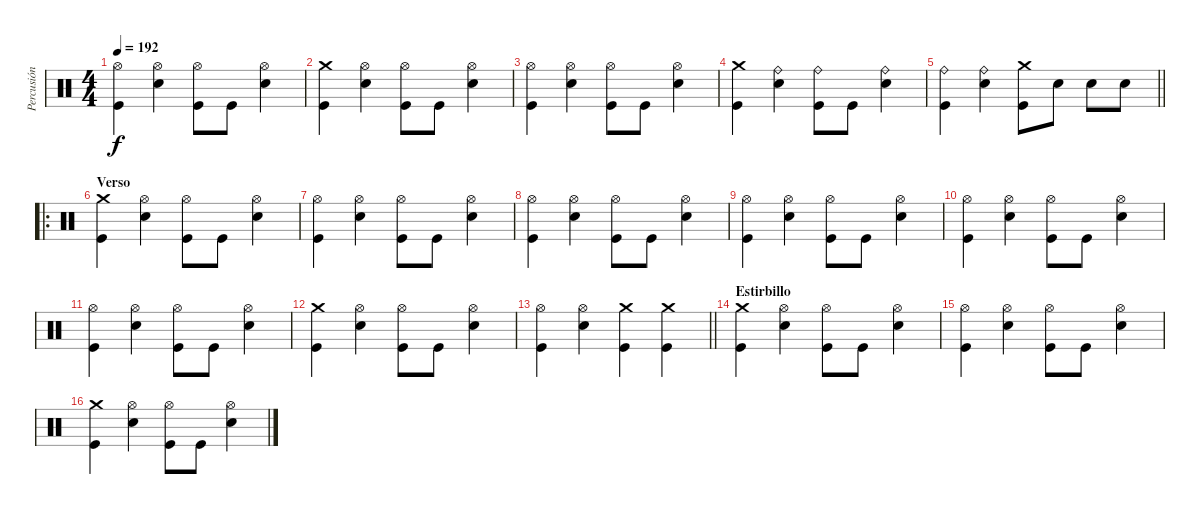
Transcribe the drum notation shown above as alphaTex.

\track ("Percusión" "Percusión") {instrument percussion}
\staff {score}
\articulation defaults
\ts (4 4)
\tempo 192
\clef neutral
\ks c
("Hi-Hat (open)" "Kick (hit)").4{dy f} ("Hi-Hat (open)" "Snare (hit) 2").4 ("Hi-Hat (open)" "Kick (hit)").8 "Kick (hit)".8 ("Hi-Hat (open)" "Snare (hit) 2").4 |
("Crash medium (hit)" "Kick (hit)").4 ("Hi-Hat (open)" "Snare (hit) 2").4 ("Hi-Hat (open)" "Kick (hit)").8 "Kick (hit)".8 ("Hi-Hat (open)" "Snare (hit) 2").4 |
("Hi-Hat (open)" "Kick (hit)").4 ("Hi-Hat (open)" "Snare (hit) 2").4 ("Hi-Hat (open)" "Kick (hit)").8 "Kick (hit)".8 ("Hi-Hat (open)" "Snare (hit) 2").4 |
("Crash medium (hit)" "Kick (hit)").4 ("Ride (bell)" "Snare (hit) 2").4 ("Ride (bell)" "Kick (hit)").8 "Kick (hit)".8 ("Ride (bell)" "Snare (hit) 2").4 |
\barLineRight lightlight
("Ride (bell)" "Kick (hit)").4 ("Ride (bell)" "Snare (hit) 2").4 ("Crash medium (hit)" "Kick (hit)").8 "Snare (hit) 2".8 "Snare (hit) 2".8 "Snare (hit) 2".8 |
\ro
\section ("" "Verso")
("Crash medium (hit)" "Kick (hit)").4 ("Hi-Hat (open)" "Snare (hit) 2").4 ("Hi-Hat (open)" "Kick (hit)").8 "Kick (hit)".8 ("Hi-Hat (open)" "Snare (hit) 2").4 |
("Hi-Hat (open)" "Kick (hit)").4 ("Hi-Hat (open)" "Snare (hit) 2").4 ("Hi-Hat (open)" "Kick (hit)").8 "Kick (hit)".8 ("Hi-Hat (open)" "Snare (hit) 2").4 |
("Hi-Hat (open)" "Kick (hit)").4 ("Hi-Hat (open)" "Snare (hit) 2").4 ("Hi-Hat (open)" "Kick (hit)").8 "Kick (hit)".8 ("Hi-Hat (open)" "Snare (hit) 2").4 |
("Hi-Hat (open)" "Kick (hit)").4 ("Hi-Hat (open)" "Snare (hit) 2").4 ("Hi-Hat (open)" "Kick (hit)").8 "Kick (hit)".8 ("Hi-Hat (open)" "Snare (hit) 2").4 |
("Hi-Hat (open)" "Kick (hit)").4 ("Hi-Hat (open)" "Snare (hit) 2").4 ("Hi-Hat (open)" "Kick (hit)").8 "Kick (hit)".8 ("Hi-Hat (open)" "Snare (hit) 2").4 |
("Hi-Hat (open)" "Kick (hit)").4 ("Hi-Hat (open)" "Snare (hit) 2").4 ("Hi-Hat (open)" "Kick (hit)").8 "Kick (hit)".8 ("Hi-Hat (open)" "Snare (hit) 2").4 |
("Crash medium (hit)" "Kick (hit)").4 ("Hi-Hat (open)" "Snare (hit) 2").4 ("Hi-Hat (open)" "Kick (hit)").8 "Kick (hit)".8 ("Hi-Hat (open)" "Snare (hit) 2").4 |
\barLineRight lightlight
("Hi-Hat (open)" "Kick (hit)").4 ("Hi-Hat (open)" "Snare (hit) 2").4 ("Crash medium (hit)" "Kick (hit)").4 ("Crash medium (hit)" "Kick (hit)").4 |
\section ("" "Estirbillo")
("Crash medium (hit)" "Kick (hit)").4 ("Hi-Hat (open)" "Snare (hit) 2").4 ("Hi-Hat (open)" "Kick (hit)").8 "Kick (hit)".8 ("Hi-Hat (open)" "Snare (hit) 2").4 |
("Hi-Hat (open)" "Kick (hit)").4 ("Hi-Hat (open)" "Snare (hit) 2").4 ("Hi-Hat (open)" "Kick (hit)").8 "Kick (hit)".8 ("Hi-Hat (open)" "Snare (hit) 2").4 |
("Crash medium (hit)" "Kick (hit)").4 ("Hi-Hat (open)" "Snare (hit) 2").4 ("Hi-Hat (open)" "Kick (hit)").8 "Kick (hit)".8 ("Hi-Hat (open)" "Snare (hit) 2").4
